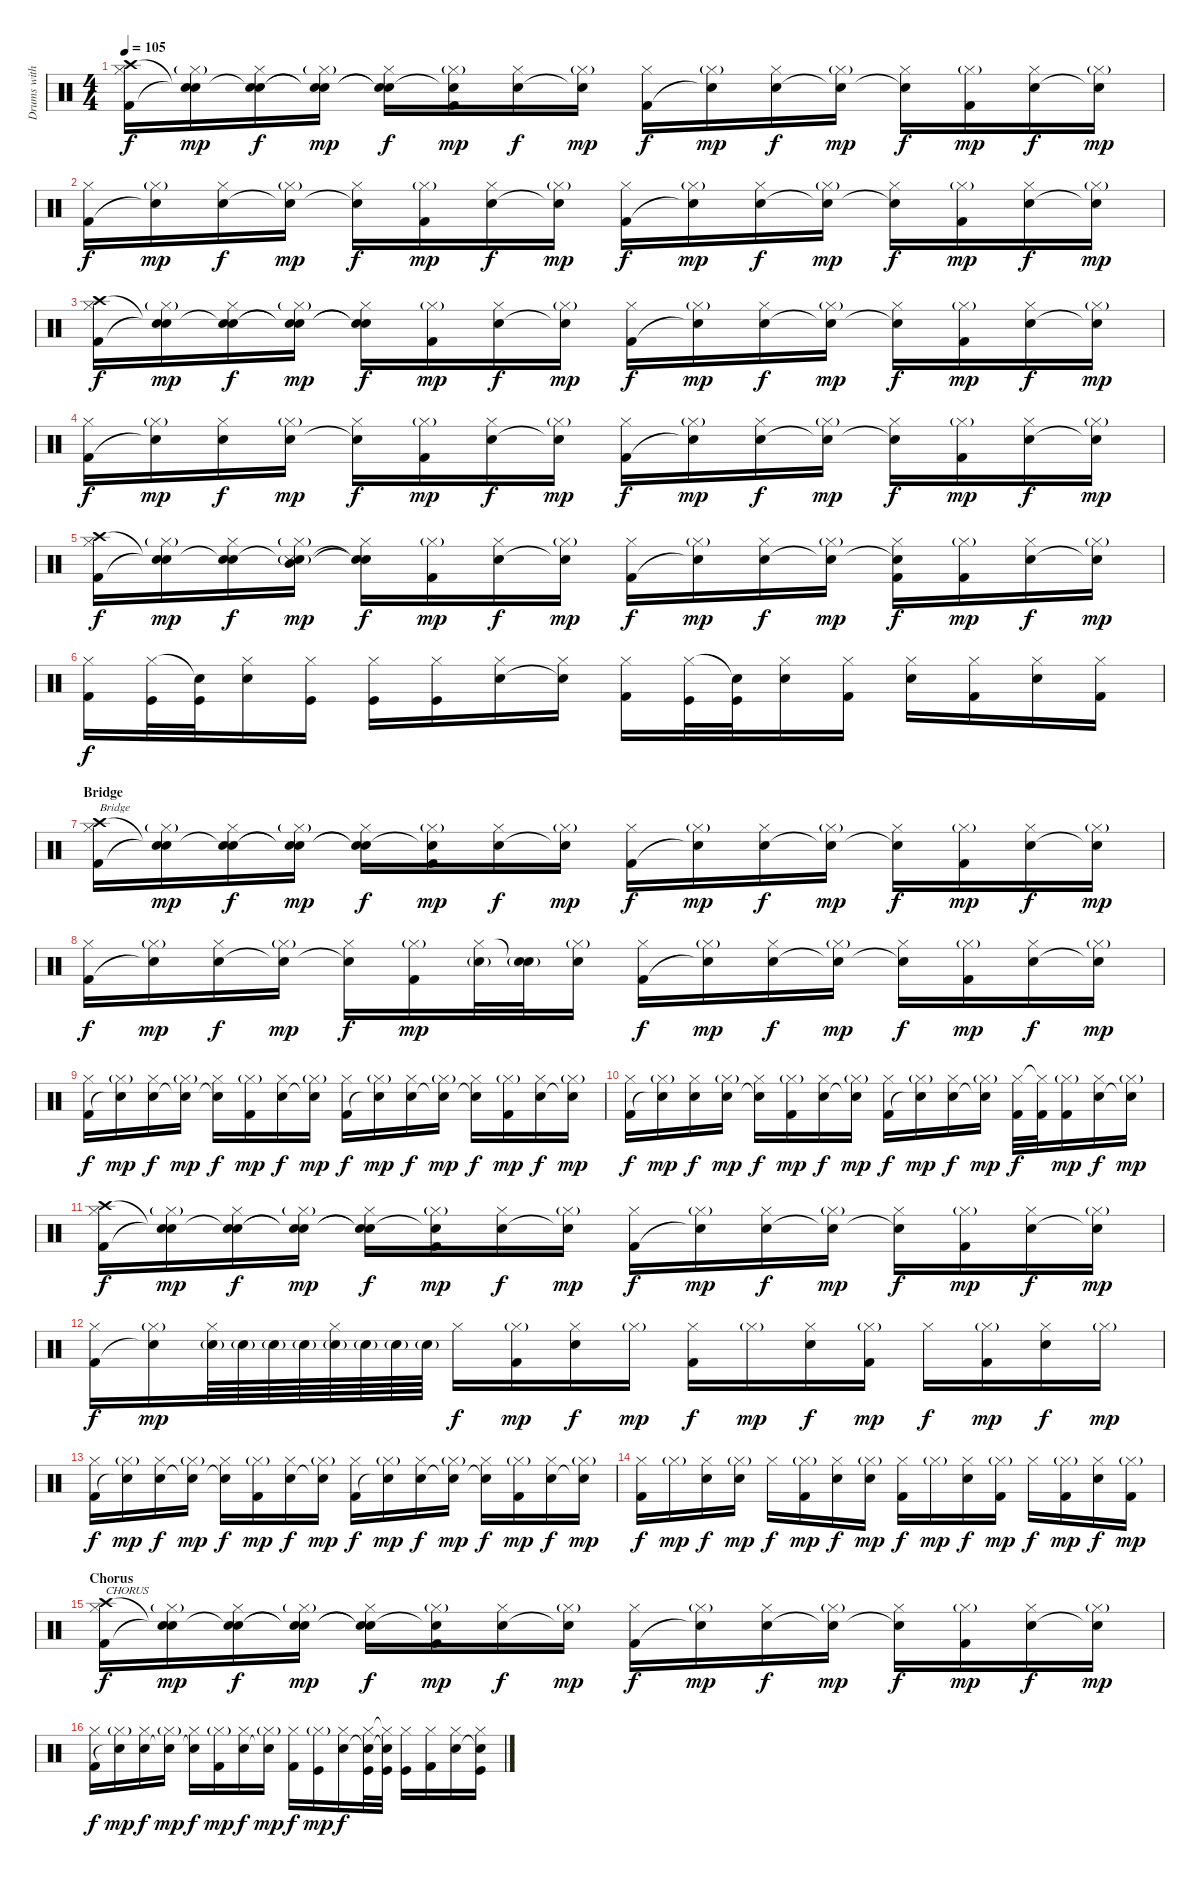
\track ("Drums with sampled drums (Rob and Joe)" "Drums with") {instrument percussion}
\staff {score}
\articulation defaults
\ts (4 4)
\tempo 105
\clef neutral
\ks c
("Crash high (hit)" "Hi-Hat (closed)" "Kick (hit) 2").16{dy f} ("Snare (hit)"{t} "Hi-Hat (closed)"{g} "Snare (hit)"{t}).16{dy mp} ("Snare (hit)"{t} "Hi-Hat (closed)" "Electric Snare (hit)").16{dy f} ("Snare (hit)"{t} "Hi-Hat (closed)"{g} "Snare (hit)"{t}).16{dy mp} ("Snare (hit)"{t} "Hi-Hat (closed)" "Snare (hit)"{t}).16{dy f} ("Snare (hit)"{t} "Hi-Hat (closed)"{g} "Kick (hit) 2").16{dy mp} ("Hi-Hat (closed)" "Electric Snare (hit)").16{dy f} ("Hi-Hat (closed)"{g} "Snare (hit)"{t}).16{dy mp} ("Hi-Hat (closed)" "Kick (hit) 2").16{dy f} ("Hi-Hat (closed)"{g} "Snare (hit)"{t}).16{dy mp} ("Hi-Hat (closed)" "Electric Snare (hit)").16{dy f} ("Hi-Hat (closed)"{g} "Snare (hit)"{t}).16{dy mp} ("Hi-Hat (closed)" "Snare (hit)"{t}).16{dy f} ("Hi-Hat (closed)"{g} "Kick (hit) 2").16{dy mp} ("Hi-Hat (closed)" "Electric Snare (hit)").16{dy f} ("Hi-Hat (closed)"{g} "Snare (hit)"{t}).16{dy mp} |
("Hi-Hat (closed)" "Kick (hit) 2").16{dy f} ("Hi-Hat (closed)"{g} "Snare (hit)"{t}).16{dy mp} ("Hi-Hat (closed)" "Electric Snare (hit)").16{dy f} ("Hi-Hat (closed)"{g} "Snare (hit)"{t}).16{dy mp} ("Hi-Hat (closed)" "Snare (hit)"{t}).16{dy f} ("Hi-Hat (closed)"{g} "Kick (hit) 2").16{dy mp} ("Hi-Hat (closed)" "Electric Snare (hit)").16{dy f} ("Hi-Hat (closed)"{g} "Snare (hit)"{t}).16{dy mp} ("Hi-Hat (closed)" "Kick (hit) 2").16{dy f} ("Hi-Hat (closed)"{g} "Snare (hit)"{t}).16{dy mp} ("Hi-Hat (closed)" "Electric Snare (hit)").16{dy f} ("Hi-Hat (closed)"{g} "Snare (hit)"{t}).16{dy mp} ("Hi-Hat (closed)" "Snare (hit)"{t}).16{dy f} ("Hi-Hat (closed)"{g} "Kick (hit) 2").16{dy mp} ("Hi-Hat (closed)" "Electric Snare (hit)").16{dy f} ("Hi-Hat (closed)"{g} "Snare (hit)"{t}).16{dy mp} |
("Crash high (hit)" "Hi-Hat (closed)" "Kick (hit) 2").16{dy f} ("Snare (hit)"{t} "Hi-Hat (closed)"{g} "Snare (hit)"{t}).16{dy mp} ("Snare (hit)"{t} "Hi-Hat (closed)" "Electric Snare (hit)").16{dy f} ("Snare (hit)"{t} "Hi-Hat (closed)"{g} "Snare (hit)"{t}).16{dy mp} ("Snare (hit)"{t} "Hi-Hat (closed)" "Snare (hit)"{t}).16{dy f} ("Hi-Hat (closed)"{g} "Kick (hit) 2").16{dy mp} ("Hi-Hat (closed)" "Electric Snare (hit)").16{dy f} ("Hi-Hat (closed)"{g} "Snare (hit)"{t}).16{dy mp} ("Hi-Hat (closed)" "Kick (hit) 2").16{dy f} ("Hi-Hat (closed)"{g} "Snare (hit)"{t}).16{dy mp} ("Hi-Hat (closed)" "Electric Snare (hit)").16{dy f} ("Hi-Hat (closed)"{g} "Snare (hit)"{t}).16{dy mp} ("Hi-Hat (closed)" "Snare (hit)"{t}).16{dy f} ("Hi-Hat (closed)"{g} "Kick (hit) 2").16{dy mp} ("Hi-Hat (closed)" "Electric Snare (hit)").16{dy f} ("Hi-Hat (closed)"{g} "Snare (hit)"{t}).16{dy mp} |
("Hi-Hat (closed)" "Kick (hit) 2").16{dy f} ("Hi-Hat (closed)"{g} "Snare (hit)"{t}).16{dy mp} ("Hi-Hat (closed)" "Electric Snare (hit)").16{dy f} ("Hi-Hat (closed)"{g} "Electric Snare (hit)").16{dy mp} ("Hi-Hat (closed)" "Snare (hit)"{t}).16{dy f} ("Hi-Hat (closed)"{g} "Kick (hit) 2").16{dy mp} ("Hi-Hat (closed)" "Electric Snare (hit)").16{dy f} ("Hi-Hat (closed)"{g} "Snare (hit)"{t}).16{dy mp} ("Hi-Hat (closed)" "Kick (hit) 2").16{dy f} ("Hi-Hat (closed)"{g} "Snare (hit)"{t}).16{dy mp} ("Hi-Hat (closed)" "Electric Snare (hit)").16{dy f} ("Hi-Hat (closed)"{g} "Snare (hit)"{t}).16{dy mp} ("Hi-Hat (closed)" "Snare (hit)"{t}).16{dy f} ("Hi-Hat (closed)"{g} "Kick (hit) 2").16{dy mp} ("Hi-Hat (closed)" "Electric Snare (hit)").16{dy f} ("Hi-Hat (closed)"{g} "Snare (hit)"{t}).16{dy mp} |
("Crash high (hit)" "Hi-Hat (closed)" "Kick (hit) 2").16{dy f} ("Snare (hit)"{t} "Hi-Hat (closed)"{g} "Snare (hit)"{t}).16{dy mp} ("Snare (hit)"{t} "Hi-Hat (closed)" "Electric Snare (hit)").16{dy f} ("Snare (hit)"{t} "Hi-Hat (closed)"{g} "Mid Tom (hit)" "Metronome (hit)"{g}).16{dy mp} ("Snare (hit)"{t} "Hi-Hat (closed)" "Snare (hit)"{t}).16{dy f} ("Hi-Hat (closed)"{g} "Kick (hit) 2").16{dy mp} ("Hi-Hat (closed)" "Electric Snare (hit)").16{dy f} ("Hi-Hat (closed)"{g} "Snare (hit)"{t}).16{dy mp} ("Hi-Hat (closed)" "Kick (hit) 2").16{dy f} ("Hi-Hat (closed)"{g} "Snare (hit)"{t}).16{dy mp} ("Hi-Hat (closed)" "Electric Snare (hit)").16{dy f} ("Hi-Hat (closed)"{g} "Snare (hit)"{t}).16{dy mp} ("Hi-Hat (closed)" "Snare (hit)"{t} "Kick (hit) 2").16{dy f} ("Hi-Hat (closed)"{g} "Kick (hit) 2").16{dy mp} ("Hi-Hat (closed)" "Electric Snare (hit)").16{dy f} ("Hi-Hat (closed)"{g} "Snare (hit)"{t}).16{dy mp} |
("Hi-Hat (closed)" "Kick (hit) 2").16{dy f} ("Hi-Hat (closed)" "Kick (hit)").32 ("Snare (hit)"{t} "Kick (hit)").32 ("Hi-Hat (closed)" "Electric Snare (hit)").16 ("Hi-Hat (closed)" "Kick (hit)").16 ("Hi-Hat (closed)" "Kick (hit)").16 ("Hi-Hat (closed)" "Kick (hit)").16 ("Hi-Hat (closed)" "Electric Snare (hit)").16 ("Hi-Hat (closed)" "Snare (hit)"{t}).16 ("Hi-Hat (closed)" "Kick (hit) 2").16 ("Hi-Hat (closed)" "Kick (hit)").32 ("Snare (hit)"{t} "Kick (hit)").32 ("Hi-Hat (closed)" "Electric Snare (hit)").16 ("Hi-Hat (closed)" "Kick (hit) 2").16 ("Hi-Hat (closed)" "Electric Snare (hit)").16 ("Hi-Hat (closed)" "Kick (hit) 2").16 ("Hi-Hat (closed)" "Electric Snare (hit)").16 ("Hi-Hat (closed)" "Kick (hit) 2").16 |
\section ("" "Bridge")
("Crash high (hit)" "Hi-Hat (closed)" "Kick (hit) 2").16{txt "Bridge"} ("Snare (hit)"{t} "Hi-Hat (closed)"{g} "Snare (hit)"{t}).16{dy mp} ("Snare (hit)"{t} "Hi-Hat (closed)" "Electric Snare (hit)").16{dy f} ("Snare (hit)"{t} "Hi-Hat (closed)"{g} "Snare (hit)"{t}).16{dy mp} ("Snare (hit)"{t} "Hi-Hat (closed)" "Snare (hit)"{t}).16{dy f} ("Snare (hit)"{t} "Hi-Hat (closed)"{g} "Kick (hit) 2").16{dy mp} ("Hi-Hat (closed)" "Electric Snare (hit)").16{dy f} ("Hi-Hat (closed)"{g} "Snare (hit)"{t}).16{dy mp} ("Hi-Hat (closed)" "Kick (hit) 2").16{dy f} ("Hi-Hat (closed)"{g} "Snare (hit)"{t}).16{dy mp} ("Hi-Hat (closed)" "Electric Snare (hit)").16{dy f} ("Hi-Hat (closed)"{g} "Snare (hit)"{t}).16{dy mp} ("Hi-Hat (closed)" "Snare (hit)"{t}).16{dy f} ("Hi-Hat (closed)"{g} "Kick (hit) 2").16{dy mp} ("Hi-Hat (closed)" "Electric Snare (hit)").16{dy f} ("Hi-Hat (closed)"{g} "Snare (hit)"{t}).16{dy mp} |
("Hi-Hat (closed)" "Kick (hit) 2").16{dy f} ("Hi-Hat (closed)"{g} "Snare (hit)"{t}).16{dy mp} ("Hi-Hat (closed)" "Electric Snare (hit)").16{dy f} ("Hi-Hat (closed)"{g} "Snare (hit)"{t}).16{dy mp} ("Hi-Hat (closed)" "Snare (hit)"{t}).16{dy f} ("Hi-Hat (closed)"{g} "Kick (hit) 2").16{dy mp} ("Hi-Hat (closed)" "Electric Snare (hit)"{g}).32 ("Snare (hit)"{t} "Electric Snare (hit)"{g}).32 ("Hi-Hat (closed)"{g} "Electric Snare (hit)").16 ("Hi-Hat (closed)" "Kick (hit) 2").16{dy f} ("Hi-Hat (closed)"{g} "Snare (hit)"{t}).16{dy mp} ("Hi-Hat (closed)" "Electric Snare (hit)").16{dy f} ("Hi-Hat (closed)"{g} "Snare (hit)"{t}).16{dy mp} ("Hi-Hat (closed)" "Snare (hit)"{t}).16{dy f} ("Hi-Hat (closed)"{g} "Kick (hit) 2").16{dy mp} ("Hi-Hat (closed)" "Electric Snare (hit)").16{dy f} ("Hi-Hat (closed)"{g} "Snare (hit)"{t}).16{dy mp} |
("Hi-Hat (closed)" "Kick (hit) 2").16{dy f} ("Hi-Hat (closed)"{g} "Snare (hit)"{t}).16{dy mp} ("Hi-Hat (closed)" "Electric Snare (hit)").16{dy f} ("Hi-Hat (closed)"{g} "Snare (hit)"{t}).16{dy mp} ("Hi-Hat (closed)" "Snare (hit)"{t}).16{dy f} ("Hi-Hat (closed)"{g} "Kick (hit) 2").16{dy mp} ("Hi-Hat (closed)" "Electric Snare (hit)").16{dy f} ("Hi-Hat (closed)"{g} "Snare (hit)"{t}).16{dy mp} ("Hi-Hat (closed)" "Kick (hit) 2").16{dy f} ("Hi-Hat (closed)"{g} "Snare (hit)"{t}).16{dy mp} ("Hi-Hat (closed)" "Electric Snare (hit)").16{dy f} ("Hi-Hat (closed)"{g} "Snare (hit)"{t}).16{dy mp} ("Hi-Hat (closed)" "Snare (hit)"{t}).16{dy f} ("Hi-Hat (closed)"{g} "Kick (hit) 2").16{dy mp} ("Hi-Hat (closed)" "Electric Snare (hit)").16{dy f} ("Hi-Hat (closed)"{g} "Snare (hit)"{t}).16{dy mp} |
("Hi-Hat (closed)" "Kick (hit) 2").16{dy f} ("Hi-Hat (closed)"{g} "Snare (hit)"{t}).16{dy mp} ("Hi-Hat (closed)" "Electric Snare (hit)").16{dy f} ("Hi-Hat (closed)"{g} "Electric Snare (hit)").16{dy mp} ("Hi-Hat (closed)" "Snare (hit)"{t}).16{dy f} ("Hi-Hat (closed)"{g} "Kick (hit) 2").16{dy mp} ("Hi-Hat (closed)" "Electric Snare (hit)").16{dy f} ("Hi-Hat (closed)"{g} "Snare (hit)"{t}).16{dy mp} ("Hi-Hat (closed)" "Kick (hit) 2").16{dy f} ("Hi-Hat (closed)"{g} "Snare (hit)"{t}).16{dy mp} ("Hi-Hat (closed)" "Electric Snare (hit)").16{dy f} ("Hi-Hat (closed)"{g} "Snare (hit)"{t}).16{dy mp} ("Hi-Hat (closed)" "Kick (hit) 2").32{dy f} ("Hi-Hat (closed)"{t} "Kick (hit) 2").32 ("Hi-Hat (closed)"{g} "Kick (hit) 2").16{dy mp} ("Hi-Hat (closed)" "Electric Snare (hit)").16{dy f} ("Hi-Hat (closed)"{g} "Snare (hit)"{t}).16{dy mp} |
("Crash high (hit)" "Hi-Hat (closed)" "Kick (hit) 2").16{dy f} ("Snare (hit)"{t} "Hi-Hat (closed)"{g} "Snare (hit)"{t}).16{dy mp} ("Snare (hit)"{t} "Hi-Hat (closed)" "Electric Snare (hit)").16{dy f} ("Snare (hit)"{t} "Hi-Hat (closed)"{g} "Snare (hit)"{t}).16{dy mp} ("Snare (hit)"{t} "Hi-Hat (closed)" "Snare (hit)"{t}).16{dy f} ("Snare (hit)"{t} "Hi-Hat (closed)"{g} "Kick (hit) 2").16{dy mp} ("Hi-Hat (closed)" "Electric Snare (hit)").16{dy f} ("Hi-Hat (closed)"{g} "Snare (hit)"{t}).16{dy mp} ("Hi-Hat (closed)" "Kick (hit) 2").16{dy f} ("Hi-Hat (closed)"{g} "Snare (hit)"{t}).16{dy mp} ("Hi-Hat (closed)" "Electric Snare (hit)").16{dy f} ("Hi-Hat (closed)"{g} "Snare (hit)"{t}).16{dy mp} ("Hi-Hat (closed)" "Snare (hit)"{t}).16{dy f} ("Hi-Hat (closed)"{g} "Kick (hit) 2").16{dy mp} ("Hi-Hat (closed)" "Electric Snare (hit)").16{dy f} ("Hi-Hat (closed)"{g} "Snare (hit)"{t}).16{dy mp} |
("Hi-Hat (closed)" "Kick (hit) 2").16{dy f} ("Hi-Hat (closed)"{g} "Snare (hit)"{t}).16{dy mp} ("Hi-Hat (closed)" "Electric Snare (hit)"{g}).64 "Electric Snare (hit)"{g}.64 "Electric Snare (hit)"{g}.64 "Electric Snare (hit)"{g}.64 ("Hi-Hat (closed)" "Electric Snare (hit)"{g}).64 "Electric Snare (hit)"{g}.64 "Electric Snare (hit)"{g}.64 "Electric Snare (hit)"{g}.64 "Hi-Hat (closed)".16{dy f} ("Hi-Hat (closed)"{g} "Kick (hit) 2").16{dy mp} ("Hi-Hat (closed)" "Electric Snare (hit)").16{dy f} "Hi-Hat (closed)"{g}.16{dy mp} ("Hi-Hat (closed)" "Kick (hit) 2").16{dy f} "Hi-Hat (closed)"{g}.16{dy mp} ("Hi-Hat (closed)" "Electric Snare (hit)").16{dy f} ("Hi-Hat (closed)"{g} "Kick (hit) 2").16{dy mp} "Hi-Hat (closed)".16{dy f} ("Hi-Hat (closed)"{g} "Kick (hit) 2").16{dy mp} ("Hi-Hat (closed)" "Electric Snare (hit)").16{dy f} "Hi-Hat (closed)"{g}.16{dy mp} |
("Hi-Hat (closed)" "Kick (hit) 2").16{dy f} ("Hi-Hat (closed)"{g} "Snare (hit)"{t}).16{dy mp} ("Hi-Hat (closed)" "Electric Snare (hit)").16{dy f} ("Hi-Hat (closed)"{g} "Snare (hit)"{t}).16{dy mp} ("Hi-Hat (closed)" "Snare (hit)"{t}).16{dy f} ("Hi-Hat (closed)"{g} "Kick (hit) 2").16{dy mp} ("Hi-Hat (closed)" "Electric Snare (hit)").16{dy f} ("Hi-Hat (closed)"{g} "Snare (hit)"{t}).16{dy mp} ("Hi-Hat (closed)" "Kick (hit) 2").16{dy f} ("Hi-Hat (closed)"{g} "Snare (hit)"{t}).16{dy mp} ("Hi-Hat (closed)" "Electric Snare (hit)").16{dy f} ("Hi-Hat (closed)"{g} "Snare (hit)"{t}).16{dy mp} ("Hi-Hat (closed)" "Snare (hit)"{t}).16{dy f} ("Hi-Hat (closed)"{g} "Kick (hit) 2").16{dy mp} ("Hi-Hat (closed)" "Electric Snare (hit)").16{dy f} ("Hi-Hat (closed)"{g} "Snare (hit)"{t}).16{dy mp} |
("Hi-Hat (closed)" "Kick (hit) 2").16{dy f} "Hi-Hat (closed)"{g}.16{dy mp} ("Hi-Hat (closed)" "Electric Snare (hit)").16{dy f} ("Hi-Hat (closed)"{g} "Electric Snare (hit)").16{dy mp} "Hi-Hat (closed)".16{dy f} ("Hi-Hat (closed)"{g} "Kick (hit) 2").16{dy mp} ("Hi-Hat (closed)" "Electric Snare (hit)").16{dy f} ("Hi-Hat (closed)"{g} "Electric Snare (hit)").16{dy mp} ("Hi-Hat (closed)" "Kick (hit) 2").16{dy f} "Hi-Hat (closed)"{g}.16{dy mp} ("Hi-Hat (closed)" "Electric Snare (hit)").16{dy f} ("Hi-Hat (closed)"{g} "Kick (hit) 2").16{dy mp} "Hi-Hat (closed)".16{dy f} ("Hi-Hat (closed)"{g} "Kick (hit) 2").16{dy mp} ("Hi-Hat (closed)" "Electric Snare (hit)").16{dy f} ("Hi-Hat (closed)"{g} "Kick (hit) 2").16{dy mp} |
\section ("" "Chorus")
("Crash high (hit)" "Hi-Hat (closed)" "Kick (hit) 2").16{txt "CHORUS" dy f} ("Snare (hit)"{t} "Hi-Hat (closed)"{g} "Snare (hit)"{t}).16{dy mp} ("Snare (hit)"{t} "Hi-Hat (closed)" "Electric Snare (hit)").16{dy f} ("Snare (hit)"{t} "Hi-Hat (closed)"{g} "Snare (hit)"{t}).16{dy mp} ("Snare (hit)"{t} "Hi-Hat (closed)" "Snare (hit)"{t}).16{dy f} ("Snare (hit)"{t} "Hi-Hat (closed)"{g} "Kick (hit) 2").16{dy mp} ("Hi-Hat (closed)" "Electric Snare (hit)").16{dy f} ("Hi-Hat (closed)"{g} "Snare (hit)"{t}).16{dy mp} ("Hi-Hat (closed)" "Kick (hit) 2").16{dy f} ("Hi-Hat (closed)"{g} "Snare (hit)"{t}).16{dy mp} ("Hi-Hat (closed)" "Electric Snare (hit)").16{dy f} ("Hi-Hat (closed)"{g} "Snare (hit)"{t}).16{dy mp} ("Hi-Hat (closed)" "Snare (hit)"{t}).16{dy f} ("Hi-Hat (closed)"{g} "Kick (hit) 2").16{dy mp} ("Hi-Hat (closed)" "Electric Snare (hit)").16{dy f} ("Hi-Hat (closed)"{g} "Snare (hit)"{t}).16{dy mp} |
("Hi-Hat (closed)" "Kick (hit) 2").16{dy f} ("Hi-Hat (closed)"{g} "Snare (hit)"{t}).16{dy mp} ("Hi-Hat (closed)" "Electric Snare (hit)").16{dy f} ("Hi-Hat (closed)"{g} "Snare (hit)"{t}).16{dy mp} ("Hi-Hat (closed)" "Snare (hit)"{t}).16{dy f} ("Hi-Hat (closed)"{g} "Kick (hit) 2").16{dy mp} ("Hi-Hat (closed)" "Electric Snare (hit)").16{dy f} ("Hi-Hat (closed)"{g} "Snare (hit)"{t}).16{dy mp} ("Hi-Hat (closed)" "Kick (hit) 2").16{dy f} ("Hi-Hat (closed)"{g} "Kick (hit)").16{dy mp} ("Hi-Hat (closed)" "Electric Snare (hit)").16{dy f} ("Hi-Hat (closed)" "Snare (hit)"{t} "Kick (hit)").32 ("Hi-Hat (closed)"{t} "Snare (hit)"{t} "Kick (hit)").32 ("Hi-Hat (closed)" "Kick (hit)").16 ("Hi-Hat (closed)" "Kick (hit) 2").16 ("Hi-Hat (closed)" "Electric Snare (hit)").16 ("Hi-Hat (closed)" "Snare (hit)"{t} "Kick (hit)").16
